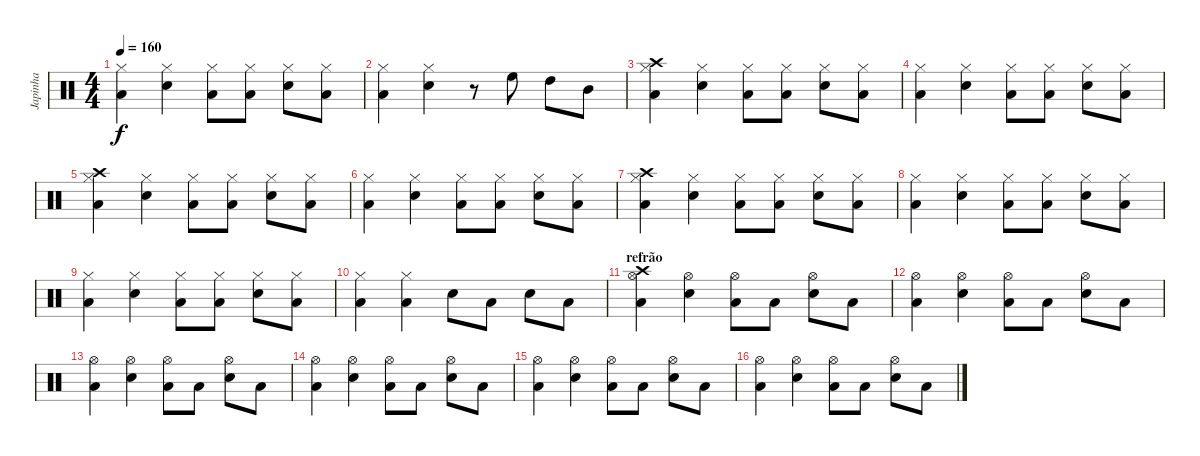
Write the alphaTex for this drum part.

\track ("Japinha" "Japinha") {instrument percussion}
\staff {score}
\articulation defaults
\ts (4 4)
\tempo 160
\clef neutral
\ks c
("Hi-Hat (closed)" "Low Tom (hit)").4{dy f} ("Hi-Hat (closed)" "Snare (hit) 2").4 ("Hi-Hat (closed)" "Low Tom (hit)").8 ("Hi-Hat (closed)" "Low Tom (hit)").8 ("Hi-Hat (closed)" "Snare (hit) 2").8 ("Hi-Hat (closed)" "Low Tom (hit)").8 |
("Hi-Hat (closed)" "Low Tom (hit)").4 ("Hi-Hat (closed)" "Snare (hit) 2").4 r.8 "High Floor Tom (hit)".8 "High Tom (hit)".8 "Mid Tom (hit)".8 |
("Crash high (hit)" "Hi-Hat (closed)" "Low Tom (hit)").4 ("Hi-Hat (closed)" "Snare (hit) 2").4 ("Hi-Hat (closed)" "Low Tom (hit)").8 ("Hi-Hat (closed)" "Low Tom (hit)").8 ("Hi-Hat (closed)" "Snare (hit) 2").8 ("Hi-Hat (closed)" "Low Tom (hit)").8 |
("Hi-Hat (closed)" "Low Tom (hit)").4 ("Hi-Hat (closed)" "Snare (hit) 2").4 ("Hi-Hat (closed)" "Low Tom (hit)").8 ("Hi-Hat (closed)" "Low Tom (hit)").8 ("Hi-Hat (closed)" "Snare (hit) 2").8 ("Hi-Hat (closed)" "Low Tom (hit)").8 |
("Crash high (hit)" "Hi-Hat (closed)" "Low Tom (hit)").4 ("Hi-Hat (closed)" "Snare (hit) 2").4 ("Hi-Hat (closed)" "Low Tom (hit)").8 ("Hi-Hat (closed)" "Low Tom (hit)").8 ("Hi-Hat (closed)" "Snare (hit) 2").8 ("Hi-Hat (closed)" "Low Tom (hit)").8 |
("Hi-Hat (closed)" "Low Tom (hit)").4 ("Hi-Hat (closed)" "Snare (hit) 2").4 ("Hi-Hat (closed)" "Low Tom (hit)").8 ("Hi-Hat (closed)" "Low Tom (hit)").8 ("Hi-Hat (closed)" "Snare (hit) 2").8 ("Hi-Hat (closed)" "Low Tom (hit)").8 |
("Crash high (hit)" "Hi-Hat (closed)" "Low Tom (hit)").4 ("Hi-Hat (closed)" "Snare (hit) 2").4 ("Hi-Hat (closed)" "Low Tom (hit)").8 ("Hi-Hat (closed)" "Low Tom (hit)").8 ("Hi-Hat (closed)" "Snare (hit) 2").8 ("Hi-Hat (closed)" "Low Tom (hit)").8 |
("Hi-Hat (closed)" "Low Tom (hit)").4 ("Hi-Hat (closed)" "Snare (hit) 2").4 ("Hi-Hat (closed)" "Low Tom (hit)").8 ("Hi-Hat (closed)" "Low Tom (hit)").8 ("Hi-Hat (closed)" "Snare (hit) 2").8 ("Hi-Hat (closed)" "Low Tom (hit)").8 |
("Hi-Hat (closed)" "Low Tom (hit)").4 ("Hi-Hat (closed)" "Snare (hit) 2").4 ("Hi-Hat (closed)" "Low Tom (hit)").8 ("Hi-Hat (closed)" "Low Tom (hit)").8 ("Hi-Hat (closed)" "Snare (hit) 2").8 ("Hi-Hat (closed)" "Low Tom (hit)").8 |
("Hi-Hat (closed)" "Low Tom (hit)").4 ("Hi-Hat (closed)" "Low Tom (hit)").4 "Snare (hit) 2".8 "Low Tom (hit)".8 "Snare (hit) 2".8 "Low Tom (hit)".8 |
\section ("" "refrão")
("Crash high (hit)" "Hi-Hat (open)" "Low Tom (hit)").4 ("Hi-Hat (open)" "Snare (hit) 2").4 ("Hi-Hat (open)" "Low Tom (hit)").8 "Low Tom (hit)".8 ("Hi-Hat (open)" "Snare (hit) 2").8 "Low Tom (hit)".8 |
("Hi-Hat (open)" "Low Tom (hit)").4 ("Hi-Hat (open)" "Snare (hit) 2").4 ("Hi-Hat (open)" "Low Tom (hit)").8 "Low Tom (hit)".8 ("Hi-Hat (open)" "Snare (hit) 2").8 "Low Tom (hit)".8 |
("Hi-Hat (open)" "Low Tom (hit)").4 ("Hi-Hat (open)" "Snare (hit) 2").4 ("Hi-Hat (open)" "Low Tom (hit)").8 "Low Tom (hit)".8 ("Hi-Hat (open)" "Snare (hit) 2").8 "Low Tom (hit)".8 |
("Hi-Hat (open)" "Low Tom (hit)").4 ("Hi-Hat (open)" "Snare (hit) 2").4 ("Hi-Hat (open)" "Low Tom (hit)").8 "Low Tom (hit)".8 ("Hi-Hat (open)" "Snare (hit) 2").8 "Low Tom (hit)".8 |
("Hi-Hat (open)" "Low Tom (hit)").4 ("Hi-Hat (open)" "Snare (hit) 2").4 ("Hi-Hat (open)" "Low Tom (hit)").8 "Low Tom (hit)".8 ("Hi-Hat (open)" "Snare (hit) 2").8 "Low Tom (hit)".8 |
("Hi-Hat (open)" "Low Tom (hit)").4 ("Hi-Hat (open)" "Snare (hit) 2").4 ("Hi-Hat (open)" "Low Tom (hit)").8 "Low Tom (hit)".8 ("Hi-Hat (open)" "Snare (hit) 2").8 "Low Tom (hit)".8
